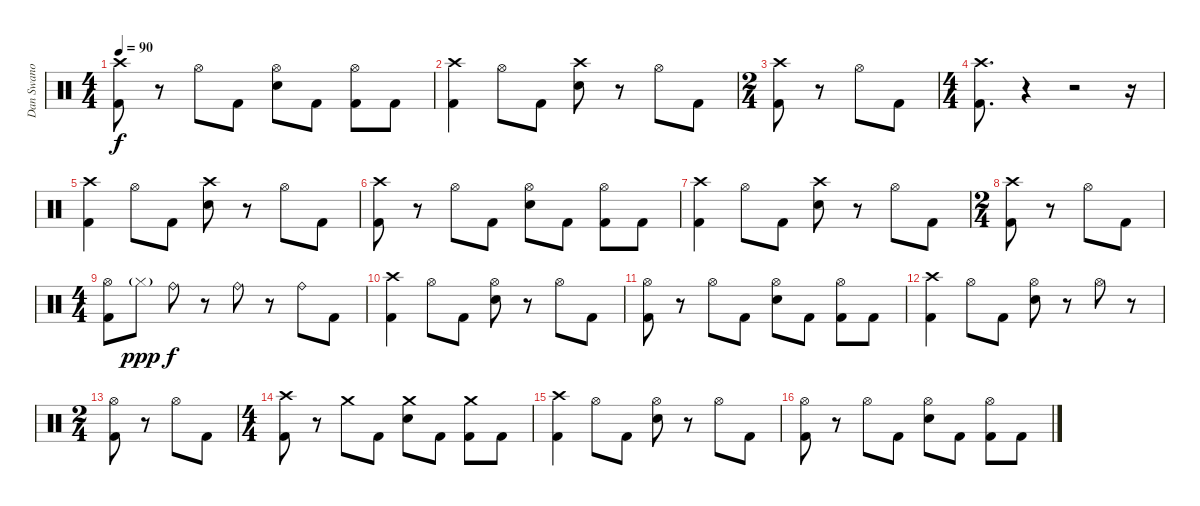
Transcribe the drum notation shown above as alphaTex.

\track ("Dan Swano" "Dan Swano") {instrument percussion}
\staff {score}
\articulation defaults
\ts (4 4)
\tempo 90
\clef neutral
\ks c
("Crash high (hit)" "Kick (hit) 2").8{dy f} r.8 "Hi-Hat (open)".8 "Kick (hit) 2".8 ("Hi-Hat (open)" "Electric Snare (hit)").8 "Kick (hit) 2".8 ("Hi-Hat (open)" "Kick (hit) 2").8 "Kick (hit) 2".8 |
("Crash high (hit)" "Kick (hit) 2").4 "Hi-Hat (open)".8 "Kick (hit) 2".8 ("Crash high (hit)" "Electric Snare (hit)").8 r.8 "Hi-Hat (open)".8 "Kick (hit) 2".8 |
\ts (2 4)
("Crash high (hit)" "Kick (hit) 2").8 r.8 "Hi-Hat (open)".8 "Kick (hit) 2".8 |
\ts (4 4)
("Crash high (hit)" "Kick (hit) 2").8{d} r.4 r.2 r.16 |
("Crash high (hit)" "Kick (hit) 2").4 "Hi-Hat (open)".8 "Kick (hit) 2".8 ("Crash high (hit)" "Electric Snare (hit)").8 r.8 "Hi-Hat (open)".8 "Kick (hit) 2".8 |
("Crash high (hit)" "Kick (hit) 2").8 r.8 "Hi-Hat (open)".8 "Kick (hit) 2".8 ("Hi-Hat (open)" "Electric Snare (hit)").8 "Kick (hit) 2".8 ("Hi-Hat (open)" "Kick (hit) 2").8 "Kick (hit) 2".8 |
("Crash high (hit)" "Kick (hit) 2").4 "Hi-Hat (open)".8 "Kick (hit) 2".8 ("Crash high (hit)" "Electric Snare (hit)").8 r.8 "Hi-Hat (open)".8 "Kick (hit) 2".8 |
\ts (2 4)
("Crash high (hit)" "Kick (hit) 2").8 r.8 "Hi-Hat (open)".8 "Kick (hit) 2".8 |
\ts (4 4)
("Hi-Hat (open)" "Kick (hit) 2").8 "Hi-Hat (closed)"{g}.8{dy ppp} "Ride (bell)".8{dy f} r.8 "Ride (bell)".8 r.8 "Ride (bell)".8 "Kick (hit) 2".8 |
("Crash high (hit)" "Kick (hit) 2").4 "Hi-Hat (open)".8 "Kick (hit) 2".8 ("Hi-Hat (open)" "Electric Snare (hit)").8 r.8 "Hi-Hat (open)".8 "Kick (hit) 2".8 |
("Hi-Hat (open)" "Kick (hit) 2").8 r.8 "Hi-Hat (open)".8 "Kick (hit) 2".8 ("Hi-Hat (open)" "Electric Snare (hit)").8 "Kick (hit) 2".8 ("Hi-Hat (open)" "Kick (hit) 2").8 "Kick (hit) 2".8 |
("Crash high (hit)" "Kick (hit) 2").4 "Hi-Hat (open)".8 "Kick (hit) 2".8 ("Hi-Hat (open)" "Electric Snare (hit)").8 r.8 "Hi-Hat (open)".8 r.8 |
\ts (2 4)
("Hi-Hat (open)" "Kick (hit) 2").8 r.8 "Hi-Hat (open)".8 "Kick (hit) 2".8 |
\ts (4 4)
("Crash high (hit)" "Kick (hit) 2").8 r.8 "Crash medium (hit)".8 "Kick (hit) 2".8 ("Crash medium (hit)" "Electric Snare (hit)").8 "Kick (hit) 2".8 ("Crash medium (hit)" "Kick (hit) 2").8 "Kick (hit) 2".8 |
("Crash high (hit)" "Kick (hit) 2").4 "Hi-Hat (open)".8 "Kick (hit) 2".8 ("Hi-Hat (open)" "Electric Snare (hit)").8 r.8 "Hi-Hat (open)".8 "Kick (hit) 2".8 |
("Hi-Hat (open)" "Kick (hit) 2").8 r.8 "Hi-Hat (open)".8 "Kick (hit) 2".8 ("Hi-Hat (open)" "Electric Snare (hit)").8 "Kick (hit) 2".8 ("Hi-Hat (open)" "Kick (hit) 2").8 "Kick (hit) 2".8
